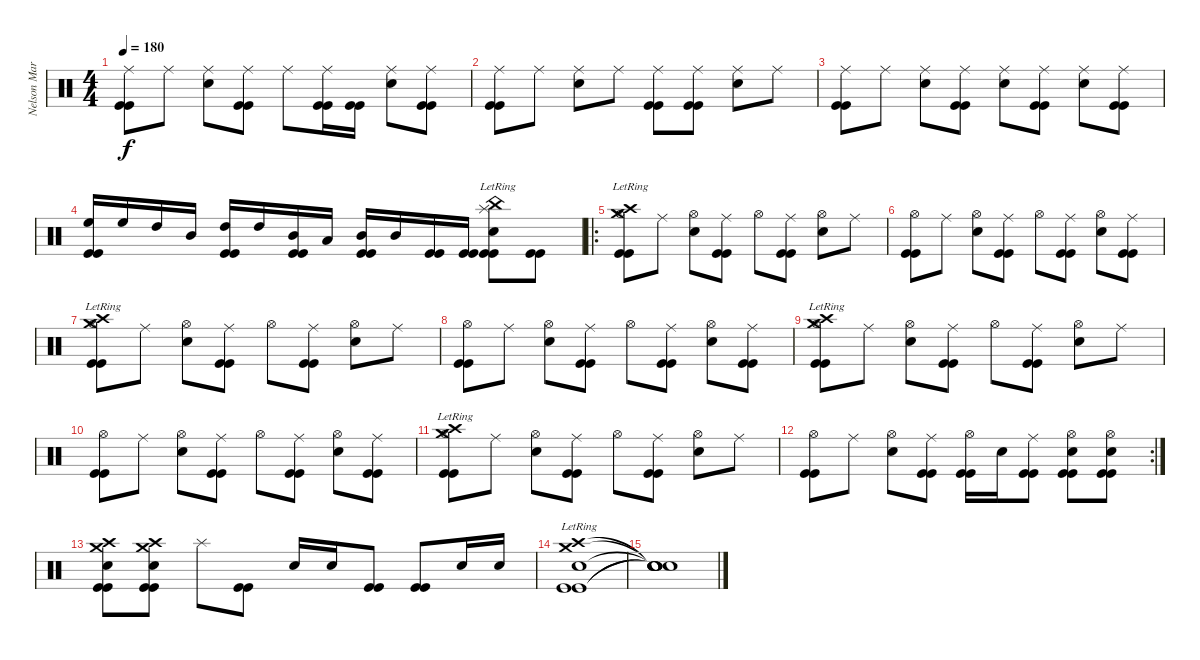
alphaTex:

\track ("Nelson Maria" "Nelson Mar") {instrument percussion}
\staff {score}
\articulation defaults
\ts (4 4)
\tempo 180
\clef neutral
\ks c
("Ride (middle)" "Kick (hit)" "Kick (hit)").8{dy f} "Ride (middle)".8 ("Snare (hit) 2" "Ride (middle)").8 ("Ride (middle)" "Kick (hit)" "Kick (hit)").8 "Ride (middle)".8 ("Ride (middle)" "Kick (hit)" "Kick (hit)").16 ("Kick (hit)" "Kick (hit)").16 ("Snare (hit) 2" "Ride (middle)").8 ("Ride (middle)" "Kick (hit)" "Kick (hit)").8 |
("Ride (middle)" "Kick (hit)" "Kick (hit)").8 "Ride (middle)".8 ("Snare (hit) 2" "Ride (middle)").8 "Ride (middle)".8 ("Ride (middle)" "Kick (hit)" "Kick (hit)").8 ("Ride (middle)" "Kick (hit)" "Kick (hit)").8 ("Snare (hit) 2" "Ride (middle)").8 "Ride (middle)".8 |
("Ride (middle)" "Kick (hit)" "Kick (hit)").8 "Ride (middle)".8 ("Snare (hit) 2" "Ride (middle)").8 ("Ride (middle)" "Kick (hit)" "Kick (hit)").8 ("Snare (hit) 2" "Ride (middle)").8 ("Ride (middle)" "Kick (hit)" "Kick (hit)").8 ("Snare (hit) 2" "Ride (middle)").8 ("Ride (middle)" "Kick (hit)" "Kick (hit)").8 |
("High Floor Tom (hit)" "Kick (hit)" "Kick (hit)").16 "High Floor Tom (hit)".16 "High Tom (hit)".16 "Mid Tom (hit)".16 ("High Tom (hit)" "Kick (hit)" "Kick (hit)").16 "High Tom (hit)".16 ("Mid Tom (hit)" "Kick (hit)" "Kick (hit)").16 "Low Tom (hit)".16 ("Mid Tom (hit)" "Kick (hit)" "Kick (hit)").16 "Mid Tom (hit)".16 ("Kick (hit)" "Kick (hit)").16 ("Kick (hit)" "Kick (hit)").16 ("China (hit)"{lr} "Splash (hit)"{lr} "Snare (hit) 2" "Kick (hit)" "Kick (hit)").8 ("Kick (hit)" "Kick (hit)").8 |
\ro
("Crash high (hit)"{lr} "Crash medium (hit)" "Hi-Hat (open)" "Kick (hit)" "Kick (hit)").8 "Ride (middle)".8 ("Snare (hit) 2" "Hi-Hat (open)").8 ("Ride (middle)" "Kick (hit)" "Kick (hit)").8 "Hi-Hat (open)".8 ("Ride (middle)" "Kick (hit)" "Kick (hit)").8 ("Snare (hit) 2" "Hi-Hat (open)").8 "Ride (middle)".8 |
("Hi-Hat (open)" "Kick (hit)" "Kick (hit)").8 "Ride (middle)".8 ("Snare (hit) 2" "Hi-Hat (open)").8 ("Ride (middle)" "Kick (hit)" "Kick (hit)").8 "Hi-Hat (open)".8 ("Ride (middle)" "Kick (hit)" "Kick (hit)").8 ("Snare (hit) 2" "Hi-Hat (open)").8 ("Ride (middle)" "Kick (hit)" "Kick (hit)").8 |
("Crash high (hit)"{lr} "Crash medium (hit)" "Hi-Hat (open)" "Kick (hit)" "Kick (hit)").8 "Ride (middle)".8 ("Snare (hit) 2" "Hi-Hat (open)").8 ("Ride (middle)" "Kick (hit)" "Kick (hit)").8 "Hi-Hat (open)".8 ("Ride (middle)" "Kick (hit)" "Kick (hit)").8 ("Snare (hit) 2" "Hi-Hat (open)").8 "Ride (middle)".8 |
("Hi-Hat (open)" "Kick (hit)" "Kick (hit)").8 "Ride (middle)".8 ("Snare (hit) 2" "Hi-Hat (open)").8 ("Ride (middle)" "Kick (hit)" "Kick (hit)").8 "Hi-Hat (open)".8 ("Ride (middle)" "Kick (hit)" "Kick (hit)").8 ("Snare (hit) 2" "Hi-Hat (open)").8 ("Ride (middle)" "Kick (hit)" "Kick (hit)").8 |
("Crash high (hit)"{lr} "Crash medium (hit)" "Hi-Hat (open)" "Kick (hit)" "Kick (hit)").8 "Ride (middle)".8 ("Snare (hit) 2" "Hi-Hat (open)").8 ("Ride (middle)" "Kick (hit)" "Kick (hit)").8 "Hi-Hat (open)".8 ("Ride (middle)" "Kick (hit)" "Kick (hit)").8 ("Snare (hit) 2" "Hi-Hat (open)").8 "Ride (middle)".8 |
("Hi-Hat (open)" "Kick (hit)" "Kick (hit)").8 "Ride (middle)".8 ("Snare (hit) 2" "Hi-Hat (open)").8 ("Ride (middle)" "Kick (hit)" "Kick (hit)").8 "Hi-Hat (open)".8 ("Ride (middle)" "Kick (hit)" "Kick (hit)").8 ("Snare (hit) 2" "Hi-Hat (open)").8 ("Ride (middle)" "Kick (hit)" "Kick (hit)").8 |
("Crash high (hit)"{lr} "Crash medium (hit)" "Hi-Hat (open)" "Kick (hit)" "Kick (hit)").8 "Ride (middle)".8 ("Snare (hit) 2" "Hi-Hat (open)").8 ("Ride (middle)" "Kick (hit)" "Kick (hit)").8 "Hi-Hat (open)".8 ("Ride (middle)" "Kick (hit)" "Kick (hit)").8 ("Snare (hit) 2" "Hi-Hat (open)").8 "Ride (middle)".8 |
\rc 2
("Hi-Hat (open)" "Kick (hit)" "Kick (hit)").8 "Ride (middle)".8 ("Snare (hit) 2" "Hi-Hat (open)").8 ("Ride (middle)" "Kick (hit)" "Kick (hit)").8 ("Hi-Hat (open)" "Kick (hit)" "Kick (hit)").16 "Snare (hit) 2".16 ("Ride (middle)" "Kick (hit)" "Kick (hit)").8 ("Snare (hit) 2" "Hi-Hat (open)" "Kick (hit)" "Kick (hit)").8 ("Snare (hit) 2" "Hi-Hat (open)" "Kick (hit)" "Kick (hit)").8 |
("Crash high (hit)" "Crash medium (hit)" "Snare (hit) 2" "Kick (hit)" "Kick (hit)").8 ("Crash high (hit)" "Crash medium (hit)" "Snare (hit) 2" "Kick (hit)" "Kick (hit)").8 "Splash (hit)".8 ("Kick (hit)" "Kick (hit)").8 "Snare (hit) 2".16 "Snare (hit) 2".16 ("Kick (hit)" "Kick (hit)").8 ("Kick (hit)" "Kick (hit)").8 "Snare (hit) 2".16 "Snare (hit) 2".16 |
("Crash high (hit)"{lr} "Crash medium (hit)"{lr} "Snare (hit) 2" "Kick (hit)" "Kick (hit)").1 |
("Snare (hit)"{t} "Snare (hit)"{t} "Snare (hit)"{t} "Snare (hit)"{t} "Snare (hit)"{t}).1
